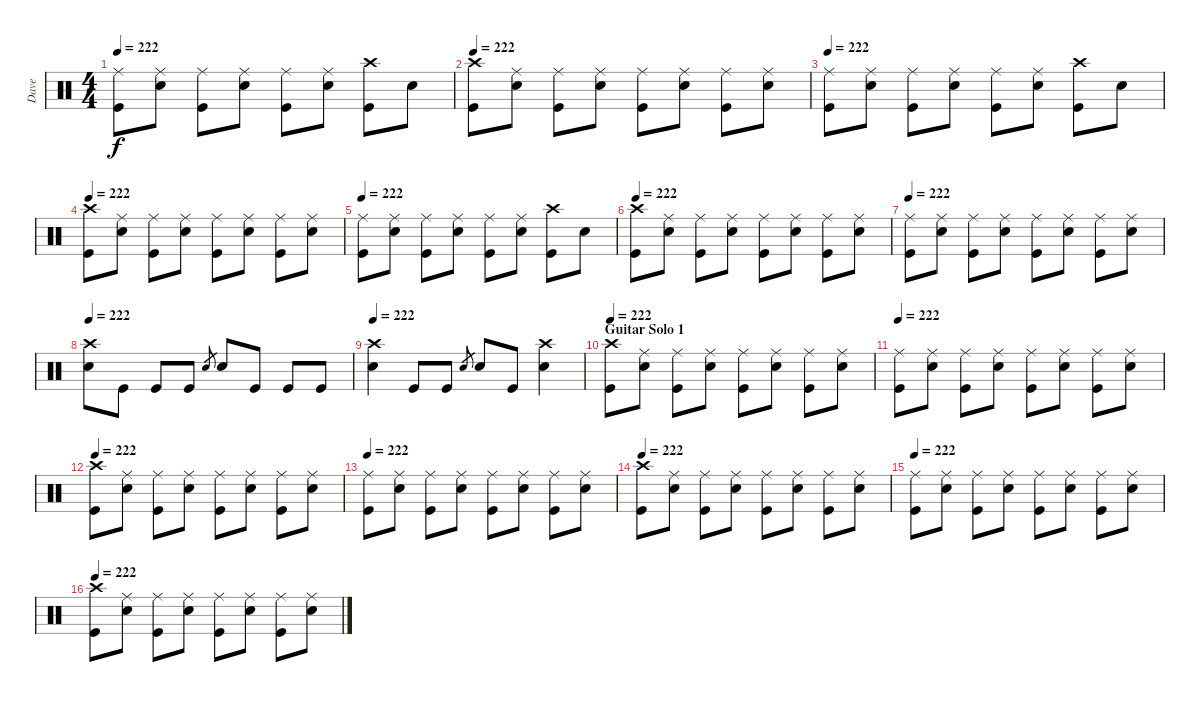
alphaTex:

\track ("Dave" "Dave") {instrument percussion}
\staff {score}
\articulation defaults
\ts (4 4)
\tempo 222
\clef neutral
\ks c
("Ride (middle)" "Kick (hit)").8{dy f} ("Ride (middle)" "Snare (hit) 2").8 ("Ride (middle)" "Kick (hit)").8 ("Ride (middle)" "Snare (hit) 2").8 ("Ride (middle)" "Kick (hit)").8 ("Ride (middle)" "Snare (hit) 2").8 ("Crash high (hit)" "Kick (hit)").8 "Snare (hit) 2".8 |
\tempo 222
("Crash high (hit)" "Kick (hit)").8 ("Ride (middle)" "Snare (hit) 2").8 ("Ride (middle)" "Kick (hit)").8 ("Ride (middle)" "Snare (hit) 2").8 ("Ride (middle)" "Kick (hit)").8 ("Ride (middle)" "Snare (hit) 2").8 ("Ride (middle)" "Kick (hit)").8 ("Ride (middle)" "Snare (hit) 2").8 |
\tempo 222
("Ride (middle)" "Kick (hit)").8 ("Ride (middle)" "Snare (hit) 2").8 ("Ride (middle)" "Kick (hit)").8 ("Ride (middle)" "Snare (hit) 2").8 ("Ride (middle)" "Kick (hit)").8 ("Ride (middle)" "Snare (hit) 2").8 ("Crash high (hit)" "Kick (hit)").8 "Snare (hit) 2".8 |
\tempo 222
("Crash high (hit)" "Kick (hit)").8 ("Ride (middle)" "Snare (hit) 2").8 ("Ride (middle)" "Kick (hit)").8 ("Ride (middle)" "Snare (hit) 2").8 ("Ride (middle)" "Kick (hit)").8 ("Ride (middle)" "Snare (hit) 2").8 ("Ride (middle)" "Kick (hit)").8 ("Ride (middle)" "Snare (hit) 2").8 |
\tempo 222
("Ride (middle)" "Kick (hit)").8 ("Ride (middle)" "Snare (hit) 2").8 ("Ride (middle)" "Kick (hit)").8 ("Ride (middle)" "Snare (hit) 2").8 ("Ride (middle)" "Kick (hit)").8 ("Ride (middle)" "Snare (hit) 2").8 ("Crash high (hit)" "Kick (hit)").8 "Snare (hit) 2".8 |
\tempo 222
("Crash high (hit)" "Kick (hit)").8 ("Ride (middle)" "Snare (hit) 2").8 ("Ride (middle)" "Kick (hit)").8 ("Ride (middle)" "Snare (hit) 2").8 ("Ride (middle)" "Kick (hit)").8 ("Ride (middle)" "Snare (hit) 2").8 ("Ride (middle)" "Kick (hit)").8 ("Ride (middle)" "Snare (hit) 2").8 |
\tempo 222
("Ride (middle)" "Kick (hit)").8 ("Ride (middle)" "Snare (hit) 2").8 ("Ride (middle)" "Kick (hit)").8 ("Ride (middle)" "Snare (hit) 2").8 ("Ride (middle)" "Kick (hit)").8 ("Ride (middle)" "Snare (hit) 2").8 ("Ride (middle)" "Kick (hit)").8 ("Ride (middle)" "Snare (hit) 2").8 |
\tempo 222
("Crash high (hit)" "Snare (hit) 2").8 "Kick (hit)".8 "Kick (hit)".8 "Kick (hit)".8 "Snare (hit) 2".8{gr} "Snare (hit) 2".8 "Kick (hit)".8 "Kick (hit)".8 "Kick (hit)".8 |
\tempo 222
("Crash high (hit)" "Snare (hit) 2").4 "Kick (hit)".8 "Kick (hit)".8 "Snare (hit) 2".8{gr} "Snare (hit) 2".8 "Kick (hit)".8 ("Crash high (hit)" "Snare (hit) 2").4 |
\section ("" "Guitar Solo 1")
\tempo 222
("Crash high (hit)" "Kick (hit)").8 ("Ride (middle)" "Snare (hit) 2").8 ("Ride (middle)" "Kick (hit)").8 ("Ride (middle)" "Snare (hit) 2").8 ("Ride (middle)" "Kick (hit)").8 ("Ride (middle)" "Snare (hit) 2").8 ("Ride (middle)" "Kick (hit)").8 ("Ride (middle)" "Snare (hit) 2").8 |
\tempo 222
("Ride (middle)" "Kick (hit)").8 ("Ride (middle)" "Snare (hit) 2").8 ("Ride (middle)" "Kick (hit)").8 ("Ride (middle)" "Snare (hit) 2").8 ("Ride (middle)" "Kick (hit)").8 ("Ride (middle)" "Snare (hit) 2").8 ("Ride (middle)" "Kick (hit)").8 ("Ride (middle)" "Snare (hit) 2").8 |
\tempo 222
("Crash high (hit)" "Kick (hit)").8 ("Ride (middle)" "Snare (hit) 2").8 ("Ride (middle)" "Kick (hit)").8 ("Ride (middle)" "Snare (hit) 2").8 ("Ride (middle)" "Kick (hit)").8 ("Ride (middle)" "Snare (hit) 2").8 ("Ride (middle)" "Kick (hit)").8 ("Ride (middle)" "Snare (hit) 2").8 |
\tempo 222
("Ride (middle)" "Kick (hit)").8 ("Ride (middle)" "Snare (hit) 2").8 ("Ride (middle)" "Kick (hit)").8 ("Ride (middle)" "Snare (hit) 2").8 ("Ride (middle)" "Kick (hit)").8 ("Ride (middle)" "Snare (hit) 2").8 ("Ride (middle)" "Kick (hit)").8 ("Ride (middle)" "Snare (hit) 2").8 |
\tempo 222
("Crash high (hit)" "Kick (hit)").8 ("Ride (middle)" "Snare (hit) 2").8 ("Ride (middle)" "Kick (hit)").8 ("Ride (middle)" "Snare (hit) 2").8 ("Ride (middle)" "Kick (hit)").8 ("Ride (middle)" "Snare (hit) 2").8 ("Ride (middle)" "Kick (hit)").8 ("Ride (middle)" "Snare (hit) 2").8 |
\tempo 222
("Ride (middle)" "Kick (hit)").8 ("Ride (middle)" "Snare (hit) 2").8 ("Ride (middle)" "Kick (hit)").8 ("Ride (middle)" "Snare (hit) 2").8 ("Ride (middle)" "Kick (hit)").8 ("Ride (middle)" "Snare (hit) 2").8 ("Ride (middle)" "Kick (hit)").8 ("Ride (middle)" "Snare (hit) 2").8 |
\tempo 222
("Crash high (hit)" "Kick (hit)").8 ("Ride (middle)" "Snare (hit) 2").8 ("Ride (middle)" "Kick (hit)").8 ("Ride (middle)" "Snare (hit) 2").8 ("Ride (middle)" "Kick (hit)").8 ("Ride (middle)" "Snare (hit) 2").8 ("Ride (middle)" "Kick (hit)").8 ("Ride (middle)" "Snare (hit) 2").8
